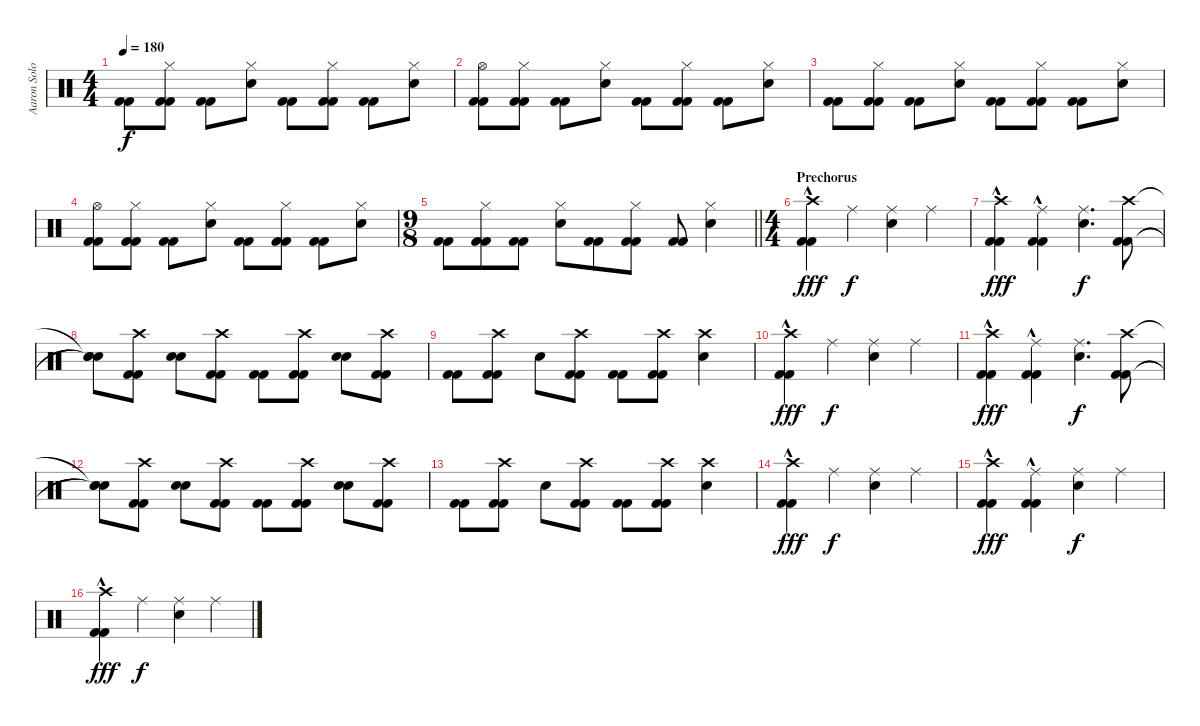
\track ("Aaron Solowoniuk" "Aaron Solo") {instrument percussion}
\staff {score}
\articulation defaults
\ts (4 4)
\tempo 180
\clef neutral
\ks c
("Kick (hit) 2" "Kick (hit) 2").8{dy f} ("Hi-Hat (closed)" "Kick (hit) 2" "Kick (hit) 2").8 ("Kick (hit) 2" "Kick (hit) 2").8 ("Hi-Hat (closed)" "Electric Snare (hit)").8 ("Kick (hit) 2" "Kick (hit) 2").8 ("Hi-Hat (closed)" "Kick (hit) 2" "Kick (hit) 2").8 ("Kick (hit) 2" "Kick (hit) 2").8 ("Hi-Hat (closed)" "Electric Snare (hit)").8 |
("Hi-Hat (open)" "Kick (hit) 2" "Kick (hit) 2").8 ("Hi-Hat (closed)" "Kick (hit) 2" "Kick (hit) 2").8 ("Kick (hit) 2" "Kick (hit) 2").8 ("Hi-Hat (closed)" "Electric Snare (hit)").8 ("Kick (hit) 2" "Kick (hit) 2").8 ("Hi-Hat (closed)" "Kick (hit) 2" "Kick (hit) 2").8 ("Kick (hit) 2" "Kick (hit) 2").8 ("Hi-Hat (closed)" "Electric Snare (hit)").8 |
("Kick (hit) 2" "Kick (hit) 2").8 ("Hi-Hat (closed)" "Kick (hit) 2" "Kick (hit) 2").8 ("Kick (hit) 2" "Kick (hit) 2").8 ("Hi-Hat (closed)" "Electric Snare (hit)").8 ("Kick (hit) 2" "Kick (hit) 2").8 ("Hi-Hat (closed)" "Kick (hit) 2" "Kick (hit) 2").8 ("Kick (hit) 2" "Kick (hit) 2").8 ("Hi-Hat (closed)" "Electric Snare (hit)").8 |
("Hi-Hat (open)" "Kick (hit) 2" "Kick (hit) 2").8 ("Hi-Hat (closed)" "Kick (hit) 2" "Kick (hit) 2").8 ("Kick (hit) 2" "Kick (hit) 2").8 ("Hi-Hat (closed)" "Electric Snare (hit)").8 ("Kick (hit) 2" "Kick (hit) 2").8 ("Hi-Hat (closed)" "Kick (hit) 2" "Kick (hit) 2").8 ("Kick (hit) 2" "Kick (hit) 2").8 ("Hi-Hat (closed)" "Electric Snare (hit)").8 |
\ts (9 8)
\barLineRight lightlight
("Kick (hit) 2" "Kick (hit) 2").8 ("Hi-Hat (closed)" "Kick (hit) 2" "Kick (hit) 2").8 ("Kick (hit) 2" "Kick (hit) 2").8 ("Hi-Hat (closed)" "Electric Snare (hit)").8 ("Kick (hit) 2" "Kick (hit) 2").8 ("Hi-Hat (closed)" "Kick (hit) 2" "Kick (hit) 2").8 ("Kick (hit) 2" "Kick (hit) 2").8 ("Hi-Hat (closed)" "Electric Snare (hit)").4 |
\ts (4 4)
\section ("" "Prechorus")
("Crash high (hit)" "Kick (hit) 2" "Kick (hit) 2"{hac}).4{dy fff} "Ride (middle)".4{dy f} ("Ride (middle)" "Electric Snare (hit)").4 "Ride (middle)".4 |
("Crash high (hit)" "Kick (hit) 2" "Kick (hit) 2"{hac}).4{dy fff} ("Ride (middle)" "Kick (hit) 2" "Kick (hit) 2"{hac}).4 ("Ride (middle)" "Electric Snare (hit)").4{d dy f} ("Crash high (hit)" "Kick (hit) 2" "Kick (hit) 2").8 |
("Snare (hit)"{t} "Snare (hit)"{t} "Snare (hit)"{t}).8 ("Crash high (hit)" "Kick (hit) 2" "Kick (hit) 2").8 ("Electric Snare (hit)" "Electric Snare (hit)").8 ("Crash high (hit)" "Kick (hit) 2" "Kick (hit) 2").8 ("Kick (hit) 2" "Kick (hit) 2").8 ("Crash high (hit)" "Kick (hit) 2" "Kick (hit) 2").8 ("Electric Snare (hit)" "Electric Snare (hit)").8 ("Crash high (hit)" "Kick (hit) 2" "Kick (hit) 2").8 |
("Kick (hit) 2" "Kick (hit) 2").8 ("Crash high (hit)" "Kick (hit) 2" "Kick (hit) 2").8 "Electric Snare (hit)".8 ("Crash high (hit)" "Kick (hit) 2" "Kick (hit) 2").8 ("Kick (hit) 2" "Kick (hit) 2").8 ("Crash high (hit)" "Kick (hit) 2" "Kick (hit) 2").8 ("Crash high (hit)" "Electric Snare (hit)").4 |
("Crash high (hit)" "Kick (hit) 2" "Kick (hit) 2"{hac}).4{dy fff} "Ride (middle)".4{dy f} ("Ride (middle)" "Electric Snare (hit)").4 "Ride (middle)".4 |
("Crash high (hit)" "Kick (hit) 2" "Kick (hit) 2"{hac}).4{dy fff} ("Ride (middle)" "Kick (hit) 2" "Kick (hit) 2"{hac}).4 ("Ride (middle)" "Electric Snare (hit)").4{d dy f} ("Crash high (hit)" "Kick (hit) 2" "Kick (hit) 2").8 |
("Snare (hit)"{t} "Snare (hit)"{t} "Snare (hit)"{t}).8 ("Crash high (hit)" "Kick (hit) 2" "Kick (hit) 2").8 ("Electric Snare (hit)" "Electric Snare (hit)").8 ("Crash high (hit)" "Kick (hit) 2" "Kick (hit) 2").8 ("Kick (hit) 2" "Kick (hit) 2").8 ("Crash high (hit)" "Kick (hit) 2" "Kick (hit) 2").8 ("Electric Snare (hit)" "Electric Snare (hit)").8 ("Crash high (hit)" "Kick (hit) 2" "Kick (hit) 2").8 |
("Kick (hit) 2" "Kick (hit) 2").8 ("Crash high (hit)" "Kick (hit) 2" "Kick (hit) 2").8 "Electric Snare (hit)".8 ("Crash high (hit)" "Kick (hit) 2" "Kick (hit) 2").8 ("Kick (hit) 2" "Kick (hit) 2").8 ("Crash high (hit)" "Kick (hit) 2" "Kick (hit) 2").8 ("Crash high (hit)" "Electric Snare (hit)").4 |
("Crash high (hit)" "Kick (hit) 2" "Kick (hit) 2"{hac}).4{dy fff} "Ride (middle)".4{dy f} ("Ride (middle)" "Electric Snare (hit)").4 "Ride (middle)".4 |
("Crash high (hit)" "Kick (hit) 2" "Kick (hit) 2"{hac}).4{dy fff} ("Ride (middle)" "Kick (hit) 2" "Kick (hit) 2"{hac}).4 ("Ride (middle)" "Electric Snare (hit)").4{dy f} "Ride (middle)".4 |
("Crash high (hit)" "Kick (hit) 2" "Kick (hit) 2"{hac}).4{dy fff} "Ride (middle)".4{dy f} ("Ride (middle)" "Electric Snare (hit)").4 "Ride (middle)".4
